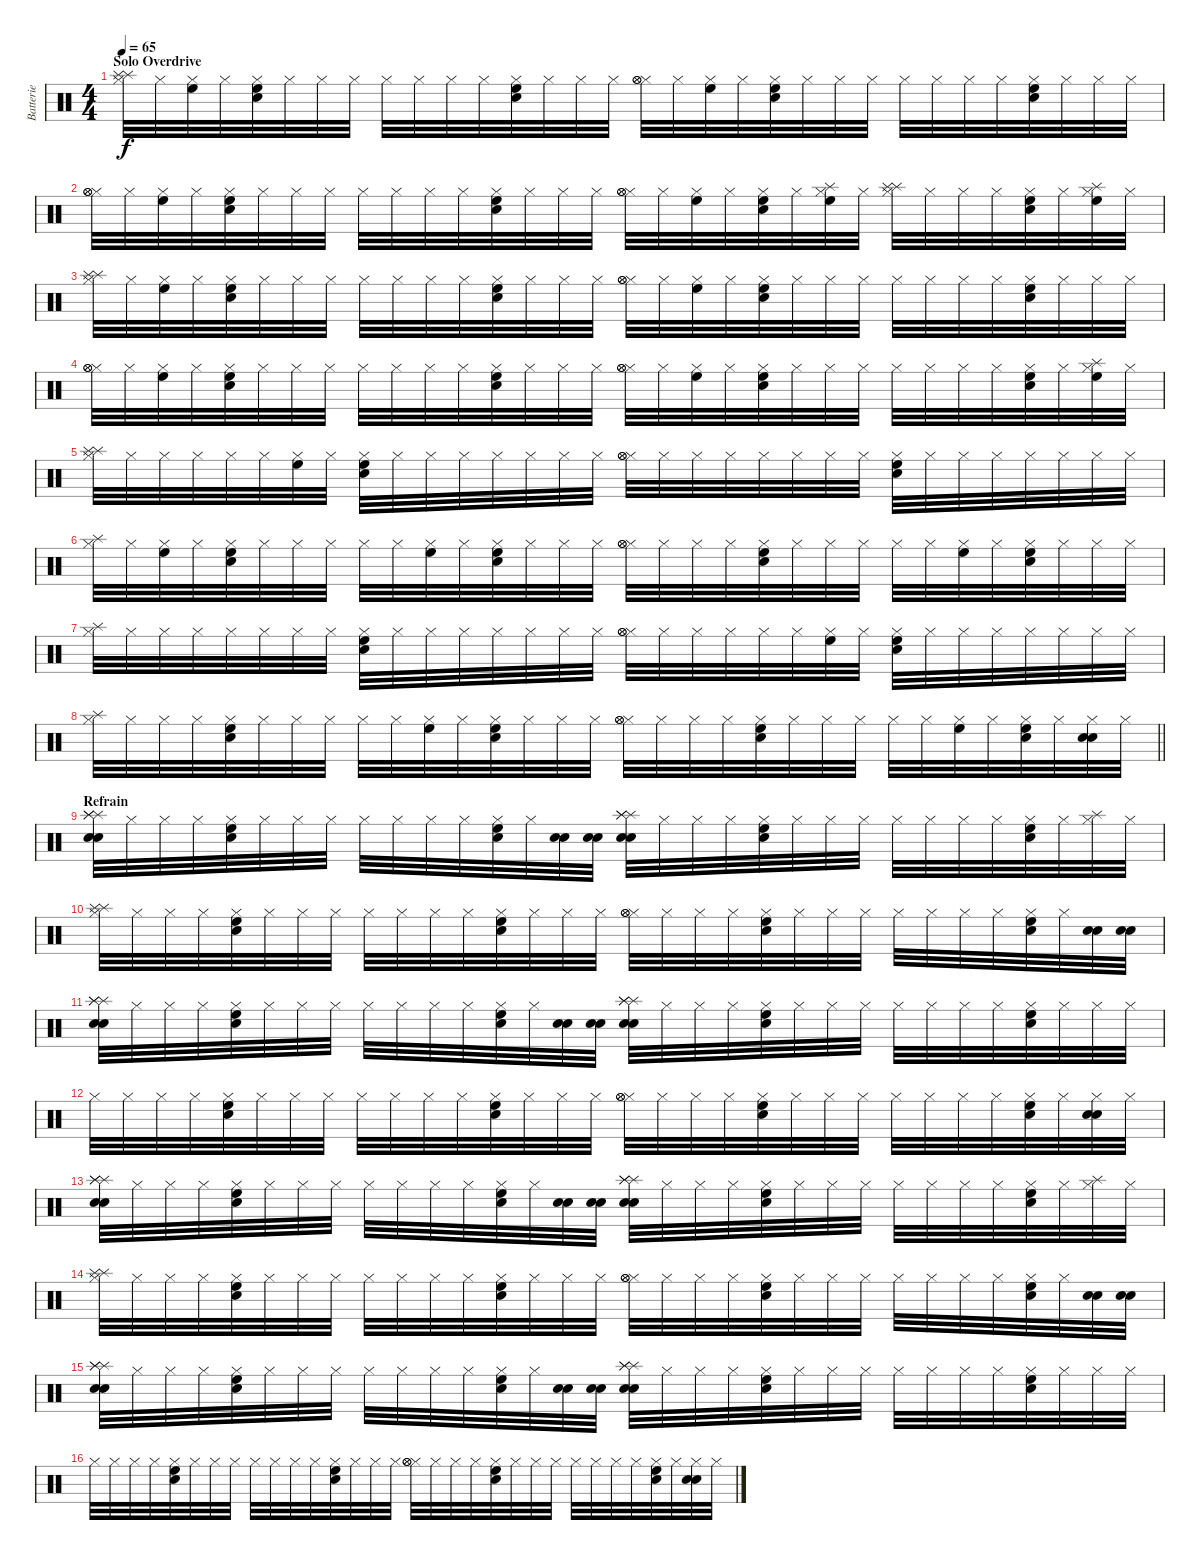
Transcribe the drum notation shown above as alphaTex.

\track ("Batterie" "Batterie") {instrument percussion}
\staff {score}
\articulation defaults
\ts (4 4)
\section ("" "Solo Overdrive")
\tempo 65
\clef neutral
\ks c
("Hi-Hat (closed)" "Splash (hit)" "Splash (hit)").32{dy f} "Hi-Hat (closed)".32 ("Hi-Hat (closed)" "High Floor Tom (hit)").32 "Hi-Hat (closed)".32 ("Hi-Hat (closed)" "Snare (hit) 2" "High Floor Tom (hit)").32 "Hi-Hat (closed)".32 "Hi-Hat (closed)".32 "Hi-Hat (closed)".32 "Hi-Hat (closed)".32 "Hi-Hat (closed)".32 "Hi-Hat (closed)".32 "Hi-Hat (closed)".32 ("Hi-Hat (closed)" "Snare (hit) 2" "High Floor Tom (hit)").32 "Hi-Hat (closed)".32 "Hi-Hat (closed)".32 "Hi-Hat (closed)".32 ("Hi-Hat (closed)" "Hi-Hat (open)" "Hi-Hat (open)").32 "Hi-Hat (closed)".32 ("Hi-Hat (closed)" "High Floor Tom (hit)").32 "Hi-Hat (closed)".32 ("Hi-Hat (closed)" "Snare (hit) 2" "High Floor Tom (hit)").32 "Hi-Hat (closed)".32 "Hi-Hat (closed)".32 "Hi-Hat (closed)".32 "Hi-Hat (closed)".32 "Hi-Hat (closed)".32 "Hi-Hat (closed)".32 "Hi-Hat (closed)".32 ("Hi-Hat (closed)" "Snare (hit) 2" "High Floor Tom (hit)").32 "Hi-Hat (closed)".32 "Hi-Hat (closed)".32 "Hi-Hat (closed)".32 |
("Hi-Hat (closed)" "Hi-Hat (open)" "Hi-Hat (open)").32 "Hi-Hat (closed)".32 ("Hi-Hat (closed)" "High Floor Tom (hit)").32 "Hi-Hat (closed)".32 ("Hi-Hat (closed)" "Snare (hit) 2" "High Floor Tom (hit)").32 "Hi-Hat (closed)".32 "Hi-Hat (closed)".32 "Hi-Hat (closed)".32 "Hi-Hat (closed)".32 "Hi-Hat (closed)".32 "Hi-Hat (closed)".32 "Hi-Hat (closed)".32 ("Hi-Hat (closed)" "Snare (hit) 2" "High Floor Tom (hit)").32 "Hi-Hat (closed)".32 "Hi-Hat (closed)".32 "Hi-Hat (closed)".32 ("Hi-Hat (closed)" "Hi-Hat (open)" "Hi-Hat (open)").32 "Hi-Hat (closed)".32 ("Hi-Hat (closed)" "High Floor Tom (hit)").32 "Hi-Hat (closed)".32 ("Hi-Hat (closed)" "Snare (hit) 2" "High Floor Tom (hit)").32 "Hi-Hat (closed)".32 ("Hi-Hat (closed)" "Splash (hit)" "High Floor Tom (hit)").32 "Hi-Hat (closed)".32 ("Hi-Hat (closed)" "Splash (hit)" "Splash (hit)").32 "Hi-Hat (closed)".32 "Hi-Hat (closed)".32 "Hi-Hat (closed)".32 ("Hi-Hat (closed)" "Snare (hit) 2" "High Floor Tom (hit)").32 "Hi-Hat (closed)".32 ("Hi-Hat (closed)" "Splash (hit)" "High Floor Tom (hit)").32 "Hi-Hat (closed)".32 |
("Hi-Hat (closed)" "Splash (hit)" "Splash (hit)").32 "Hi-Hat (closed)".32 ("Hi-Hat (closed)" "High Floor Tom (hit)").32 "Hi-Hat (closed)".32 ("Hi-Hat (closed)" "Snare (hit) 2" "High Floor Tom (hit)").32 "Hi-Hat (closed)".32 "Hi-Hat (closed)".32 "Hi-Hat (closed)".32 "Hi-Hat (closed)".32 "Hi-Hat (closed)".32 "Hi-Hat (closed)".32 "Hi-Hat (closed)".32 ("Hi-Hat (closed)" "Snare (hit) 2" "High Floor Tom (hit)").32 "Hi-Hat (closed)".32 "Hi-Hat (closed)".32 "Hi-Hat (closed)".32 ("Hi-Hat (closed)" "Hi-Hat (open)" "Hi-Hat (open)").32 "Hi-Hat (closed)".32 ("Hi-Hat (closed)" "High Floor Tom (hit)").32 "Hi-Hat (closed)".32 ("Hi-Hat (closed)" "Snare (hit) 2" "High Floor Tom (hit)").32 "Hi-Hat (closed)".32 "Hi-Hat (closed)".32 "Hi-Hat (closed)".32 "Hi-Hat (closed)".32 "Hi-Hat (closed)".32 "Hi-Hat (closed)".32 "Hi-Hat (closed)".32 ("Hi-Hat (closed)" "Snare (hit) 2" "High Floor Tom (hit)").32 "Hi-Hat (closed)".32 "Hi-Hat (closed)".32 "Hi-Hat (closed)".32 |
("Hi-Hat (closed)" "Hi-Hat (open)" "Hi-Hat (open)").32 "Hi-Hat (closed)".32 ("Hi-Hat (closed)" "High Floor Tom (hit)").32 "Hi-Hat (closed)".32 ("Hi-Hat (closed)" "Snare (hit) 2" "High Floor Tom (hit)").32 "Hi-Hat (closed)".32 "Hi-Hat (closed)".32 "Hi-Hat (closed)".32 "Hi-Hat (closed)".32 "Hi-Hat (closed)".32 "Hi-Hat (closed)".32 "Hi-Hat (closed)".32 ("Hi-Hat (closed)" "Snare (hit) 2" "High Floor Tom (hit)").32 "Hi-Hat (closed)".32 "Hi-Hat (closed)".32 "Hi-Hat (closed)".32 ("Hi-Hat (closed)" "Hi-Hat (open)" "Hi-Hat (open)").32 "Hi-Hat (closed)".32 ("Hi-Hat (closed)" "High Floor Tom (hit)").32 "Hi-Hat (closed)".32 ("Hi-Hat (closed)" "Snare (hit) 2" "High Floor Tom (hit)").32 "Hi-Hat (closed)".32 "Hi-Hat (closed)".32 "Hi-Hat (closed)".32 "Hi-Hat (closed)".32 "Hi-Hat (closed)".32 "Hi-Hat (closed)".32 "Hi-Hat (closed)".32 ("Hi-Hat (closed)" "Snare (hit) 2" "High Floor Tom (hit)").32 "Hi-Hat (closed)".32 ("Hi-Hat (closed)" "Splash (hit)" "High Floor Tom (hit)").32 "Hi-Hat (closed)".32 |
("Hi-Hat (closed)" "Splash (hit)" "Splash (hit)").32 "Hi-Hat (closed)".32 "Hi-Hat (closed)".32 "Hi-Hat (closed)".32 "Hi-Hat (closed)".32 "Hi-Hat (closed)".32 ("Hi-Hat (closed)" "High Floor Tom (hit)").32 "Hi-Hat (closed)".32 ("Hi-Hat (closed)" "Snare (hit) 2" "High Floor Tom (hit)").32 "Hi-Hat (closed)".32 "Hi-Hat (closed)".32 "Hi-Hat (closed)".32 "Hi-Hat (closed)".32 "Hi-Hat (closed)".32 "Hi-Hat (closed)".32 "Hi-Hat (closed)".32 ("Hi-Hat (closed)" "Hi-Hat (open)" "Hi-Hat (open)").32 "Hi-Hat (closed)".32 "Hi-Hat (closed)".32 "Hi-Hat (closed)".32 "Hi-Hat (closed)".32 "Hi-Hat (closed)".32 "Hi-Hat (closed)".32 "Hi-Hat (closed)".32 ("Hi-Hat (closed)" "Snare (hit) 2" "High Floor Tom (hit)").32 "Hi-Hat (closed)".32 "Hi-Hat (closed)".32 "Hi-Hat (closed)".32 "Hi-Hat (closed)".32 "Hi-Hat (closed)".32 "Hi-Hat (closed)".32 "Hi-Hat (closed)".32 |
("Hi-Hat (closed)" "Splash (hit)").32 "Hi-Hat (closed)".32 ("Hi-Hat (closed)" "High Floor Tom (hit)").32 "Hi-Hat (closed)".32 ("Hi-Hat (closed)" "Snare (hit) 2" "High Floor Tom (hit)").32 "Hi-Hat (closed)".32 "Hi-Hat (closed)".32 "Hi-Hat (closed)".32 "Hi-Hat (closed)".32 "Hi-Hat (closed)".32 ("Hi-Hat (closed)" "High Floor Tom (hit)").32 "Hi-Hat (closed)".32 ("Hi-Hat (closed)" "Snare (hit) 2" "High Floor Tom (hit)").32 "Hi-Hat (closed)".32 "Hi-Hat (closed)".32 "Hi-Hat (closed)".32 ("Hi-Hat (closed)" "Hi-Hat (open)" "Hi-Hat (open)").32 "Hi-Hat (closed)".32 "Hi-Hat (closed)".32 "Hi-Hat (closed)".32 ("Hi-Hat (closed)" "Snare (hit) 2" "High Floor Tom (hit)").32 "Hi-Hat (closed)".32 "Hi-Hat (closed)".32 "Hi-Hat (closed)".32 "Hi-Hat (closed)".32 "Hi-Hat (closed)".32 ("Hi-Hat (closed)" "High Floor Tom (hit)").32 "Hi-Hat (closed)".32 ("Hi-Hat (closed)" "Snare (hit) 2" "High Floor Tom (hit)").32 "Hi-Hat (closed)".32 "Hi-Hat (closed)".32 "Hi-Hat (closed)".32 |
("Hi-Hat (closed)" "Splash (hit)").32 "Hi-Hat (closed)".32 "Hi-Hat (closed)".32 "Hi-Hat (closed)".32 "Hi-Hat (closed)".32 "Hi-Hat (closed)".32 "Hi-Hat (closed)".32 "Hi-Hat (closed)".32 ("Hi-Hat (closed)" "Snare (hit) 2" "High Floor Tom (hit)").32 "Hi-Hat (closed)".32 "Hi-Hat (closed)".32 "Hi-Hat (closed)".32 "Hi-Hat (closed)".32 "Hi-Hat (closed)".32 "Hi-Hat (closed)".32 "Hi-Hat (closed)".32 ("Hi-Hat (closed)" "Hi-Hat (open)" "Hi-Hat (open)").32 "Hi-Hat (closed)".32 "Hi-Hat (closed)".32 "Hi-Hat (closed)".32 "Hi-Hat (closed)".32 "Hi-Hat (closed)".32 ("Hi-Hat (closed)" "High Floor Tom (hit)").32 "Hi-Hat (closed)".32 ("Hi-Hat (closed)" "Snare (hit) 2" "High Floor Tom (hit)").32 "Hi-Hat (closed)".32 "Hi-Hat (closed)".32 "Hi-Hat (closed)".32 "Hi-Hat (closed)".32 "Hi-Hat (closed)".32 "Hi-Hat (closed)".32 "Hi-Hat (closed)".32 |
\barLineRight lightlight
("Hi-Hat (closed)" "Splash (hit)").32 "Hi-Hat (closed)".32 "Hi-Hat (closed)".32 "Hi-Hat (closed)".32 ("Hi-Hat (closed)" "Snare (hit) 2" "High Floor Tom (hit)").32 "Hi-Hat (closed)".32 "Hi-Hat (closed)".32 "Hi-Hat (closed)".32 "Hi-Hat (closed)".32 "Hi-Hat (closed)".32 ("Hi-Hat (closed)" "High Floor Tom (hit)").32 "Hi-Hat (closed)".32 ("Hi-Hat (closed)" "Snare (hit) 2" "High Floor Tom (hit)").32 "Hi-Hat (closed)".32 "Hi-Hat (closed)".32 "Hi-Hat (closed)".32 ("Hi-Hat (closed)" "Hi-Hat (open)" "Hi-Hat (open)").32 "Hi-Hat (closed)".32 "Hi-Hat (closed)".32 "Hi-Hat (closed)".32 ("Hi-Hat (closed)" "Snare (hit) 2" "High Floor Tom (hit)").32 "Hi-Hat (closed)".32 "Hi-Hat (closed)".32 "Hi-Hat (closed)".32 "Hi-Hat (closed)".32 "Hi-Hat (closed)".32 ("Hi-Hat (closed)" "High Floor Tom (hit)").32 "Hi-Hat (closed)".32 ("Hi-Hat (closed)" "Snare (hit) 2" "High Floor Tom (hit)").32 "Hi-Hat (closed)".32 ("Hi-Hat (closed)" "Snare (hit) 2" "Snare (hit) 2").32 "Hi-Hat (closed)".32 |
\section ("" "Refrain")
("Snare (hit) 2" "Snare (hit) 2" "Splash (hit)" "Splash (hit)" "Splash (hit)").32 "Hi-Hat (closed)".32 "Hi-Hat (closed)".32 "Hi-Hat (closed)".32 ("Hi-Hat (closed)" "Snare (hit) 2" "High Floor Tom (hit)").32 "Hi-Hat (closed)".32 "Hi-Hat (closed)".32 "Hi-Hat (closed)".32 "Hi-Hat (closed)".32 "Hi-Hat (closed)".32 "Hi-Hat (closed)".32 "Hi-Hat (closed)".32 ("Hi-Hat (closed)" "Snare (hit) 2" "High Floor Tom (hit)").32 "Hi-Hat (closed)".32 ("Snare (hit) 2" "Snare (hit) 2").32 ("Snare (hit) 2" "Snare (hit) 2").32 ("Snare (hit) 2" "Snare (hit) 2" "Splash (hit)" "Splash (hit)" "Splash (hit)").32 "Hi-Hat (closed)".32 "Hi-Hat (closed)".32 "Hi-Hat (closed)".32 ("Hi-Hat (closed)" "Snare (hit) 2" "High Floor Tom (hit)").32 "Hi-Hat (closed)".32 "Hi-Hat (closed)".32 "Hi-Hat (closed)".32 "Hi-Hat (closed)".32 "Hi-Hat (closed)".32 "Hi-Hat (closed)".32 "Hi-Hat (closed)".32 ("Hi-Hat (closed)" "Snare (hit) 2" "High Floor Tom (hit)").32 "Hi-Hat (closed)".32 ("Hi-Hat (closed)" "Splash (hit)").32 "Hi-Hat (closed)".32 |
("Hi-Hat (closed)" "Splash (hit)" "Splash (hit)").32 "Hi-Hat (closed)".32 "Hi-Hat (closed)".32 "Hi-Hat (closed)".32 ("Hi-Hat (closed)" "Snare (hit) 2" "High Floor Tom (hit)").32 "Hi-Hat (closed)".32 "Hi-Hat (closed)".32 "Hi-Hat (closed)".32 "Hi-Hat (closed)".32 "Hi-Hat (closed)".32 "Hi-Hat (closed)".32 "Hi-Hat (closed)".32 ("Hi-Hat (closed)" "Snare (hit) 2" "High Floor Tom (hit)").32 "Hi-Hat (closed)".32 "Hi-Hat (closed)".32 "Hi-Hat (closed)".32 ("Hi-Hat (closed)" "Hi-Hat (open)" "Hi-Hat (open)").32 "Hi-Hat (closed)".32 "Hi-Hat (closed)".32 "Hi-Hat (closed)".32 ("Hi-Hat (closed)" "Snare (hit) 2" "High Floor Tom (hit)").32 "Hi-Hat (closed)".32 "Hi-Hat (closed)".32 "Hi-Hat (closed)".32 "Hi-Hat (closed)".32 "Hi-Hat (closed)".32 "Hi-Hat (closed)".32 "Hi-Hat (closed)".32 ("Hi-Hat (closed)" "Snare (hit) 2" "High Floor Tom (hit)").32 "Hi-Hat (closed)".32 ("Snare (hit) 2" "Snare (hit) 2").32 ("Snare (hit) 2" "Snare (hit) 2").32 |
("Snare (hit) 2" "Snare (hit) 2" "Splash (hit)" "Splash (hit)" "Splash (hit)").32 "Hi-Hat (closed)".32 "Hi-Hat (closed)".32 "Hi-Hat (closed)".32 ("Hi-Hat (closed)" "Snare (hit) 2" "High Floor Tom (hit)").32 "Hi-Hat (closed)".32 "Hi-Hat (closed)".32 "Hi-Hat (closed)".32 "Hi-Hat (closed)".32 "Hi-Hat (closed)".32 "Hi-Hat (closed)".32 "Hi-Hat (closed)".32 ("Hi-Hat (closed)" "Snare (hit) 2" "High Floor Tom (hit)").32 "Hi-Hat (closed)".32 ("Snare (hit) 2" "Snare (hit) 2").32 ("Snare (hit) 2" "Snare (hit) 2").32 ("Snare (hit) 2" "Snare (hit) 2" "Splash (hit)" "Splash (hit)" "Splash (hit)").32 "Hi-Hat (closed)".32 "Hi-Hat (closed)".32 "Hi-Hat (closed)".32 ("Hi-Hat (closed)" "Snare (hit) 2" "High Floor Tom (hit)").32 "Hi-Hat (closed)".32 "Hi-Hat (closed)".32 "Hi-Hat (closed)".32 "Hi-Hat (closed)".32 "Hi-Hat (closed)".32 "Hi-Hat (closed)".32 "Hi-Hat (closed)".32 ("Hi-Hat (closed)" "Snare (hit) 2" "High Floor Tom (hit)").32 "Hi-Hat (closed)".32 "Hi-Hat (closed)".32 "Hi-Hat (closed)".32 |
"Hi-Hat (closed)".32 "Hi-Hat (closed)".32 "Hi-Hat (closed)".32 "Hi-Hat (closed)".32 ("Hi-Hat (closed)" "Snare (hit) 2" "High Floor Tom (hit)").32 "Hi-Hat (closed)".32 "Hi-Hat (closed)".32 "Hi-Hat (closed)".32 "Hi-Hat (closed)".32 "Hi-Hat (closed)".32 "Hi-Hat (closed)".32 "Hi-Hat (closed)".32 ("Hi-Hat (closed)" "Snare (hit) 2" "High Floor Tom (hit)").32 "Hi-Hat (closed)".32 "Hi-Hat (closed)".32 "Hi-Hat (closed)".32 ("Hi-Hat (closed)" "Hi-Hat (open)" "Hi-Hat (open)").32 "Hi-Hat (closed)".32 "Hi-Hat (closed)".32 "Hi-Hat (closed)".32 ("Hi-Hat (closed)" "Snare (hit) 2" "High Floor Tom (hit)").32 "Hi-Hat (closed)".32 "Hi-Hat (closed)".32 "Hi-Hat (closed)".32 "Hi-Hat (closed)".32 "Hi-Hat (closed)".32 "Hi-Hat (closed)".32 "Hi-Hat (closed)".32 ("Hi-Hat (closed)" "Snare (hit) 2" "High Floor Tom (hit)").32 "Hi-Hat (closed)".32 ("Hi-Hat (closed)" "Snare (hit) 2" "Snare (hit) 2").32 "Hi-Hat (closed)".32 |
("Snare (hit) 2" "Snare (hit) 2" "Splash (hit)" "Splash (hit)" "Splash (hit)").32 "Hi-Hat (closed)".32 "Hi-Hat (closed)".32 "Hi-Hat (closed)".32 ("Hi-Hat (closed)" "Snare (hit) 2" "High Floor Tom (hit)").32 "Hi-Hat (closed)".32 "Hi-Hat (closed)".32 "Hi-Hat (closed)".32 "Hi-Hat (closed)".32 "Hi-Hat (closed)".32 "Hi-Hat (closed)".32 "Hi-Hat (closed)".32 ("Hi-Hat (closed)" "Snare (hit) 2" "High Floor Tom (hit)").32 "Hi-Hat (closed)".32 ("Snare (hit) 2" "Snare (hit) 2").32 ("Snare (hit) 2" "Snare (hit) 2").32 ("Snare (hit) 2" "Snare (hit) 2" "Splash (hit)" "Splash (hit)" "Splash (hit)").32 "Hi-Hat (closed)".32 "Hi-Hat (closed)".32 "Hi-Hat (closed)".32 ("Hi-Hat (closed)" "Snare (hit) 2" "High Floor Tom (hit)").32 "Hi-Hat (closed)".32 "Hi-Hat (closed)".32 "Hi-Hat (closed)".32 "Hi-Hat (closed)".32 "Hi-Hat (closed)".32 "Hi-Hat (closed)".32 "Hi-Hat (closed)".32 ("Hi-Hat (closed)" "Snare (hit) 2" "High Floor Tom (hit)").32 "Hi-Hat (closed)".32 ("Hi-Hat (closed)" "Splash (hit)").32 "Hi-Hat (closed)".32 |
("Hi-Hat (closed)" "Splash (hit)" "Splash (hit)").32 "Hi-Hat (closed)".32 "Hi-Hat (closed)".32 "Hi-Hat (closed)".32 ("Hi-Hat (closed)" "Snare (hit) 2" "High Floor Tom (hit)").32 "Hi-Hat (closed)".32 "Hi-Hat (closed)".32 "Hi-Hat (closed)".32 "Hi-Hat (closed)".32 "Hi-Hat (closed)".32 "Hi-Hat (closed)".32 "Hi-Hat (closed)".32 ("Hi-Hat (closed)" "Snare (hit) 2" "High Floor Tom (hit)").32 "Hi-Hat (closed)".32 "Hi-Hat (closed)".32 "Hi-Hat (closed)".32 ("Hi-Hat (closed)" "Hi-Hat (open)" "Hi-Hat (open)").32 "Hi-Hat (closed)".32 "Hi-Hat (closed)".32 "Hi-Hat (closed)".32 ("Hi-Hat (closed)" "Snare (hit) 2" "High Floor Tom (hit)").32 "Hi-Hat (closed)".32 "Hi-Hat (closed)".32 "Hi-Hat (closed)".32 "Hi-Hat (closed)".32 "Hi-Hat (closed)".32 "Hi-Hat (closed)".32 "Hi-Hat (closed)".32 ("Hi-Hat (closed)" "Snare (hit) 2" "High Floor Tom (hit)").32 "Hi-Hat (closed)".32 ("Snare (hit) 2" "Snare (hit) 2").32 ("Snare (hit) 2" "Snare (hit) 2").32 |
("Snare (hit) 2" "Snare (hit) 2" "Splash (hit)" "Splash (hit)" "Splash (hit)").32 "Hi-Hat (closed)".32 "Hi-Hat (closed)".32 "Hi-Hat (closed)".32 ("Hi-Hat (closed)" "Snare (hit) 2" "High Floor Tom (hit)").32 "Hi-Hat (closed)".32 "Hi-Hat (closed)".32 "Hi-Hat (closed)".32 "Hi-Hat (closed)".32 "Hi-Hat (closed)".32 "Hi-Hat (closed)".32 "Hi-Hat (closed)".32 ("Hi-Hat (closed)" "Snare (hit) 2" "High Floor Tom (hit)").32 "Hi-Hat (closed)".32 ("Snare (hit) 2" "Snare (hit) 2").32 ("Snare (hit) 2" "Snare (hit) 2").32 ("Snare (hit) 2" "Snare (hit) 2" "Splash (hit)" "Splash (hit)" "Splash (hit)").32 "Hi-Hat (closed)".32 "Hi-Hat (closed)".32 "Hi-Hat (closed)".32 ("Hi-Hat (closed)" "Snare (hit) 2" "High Floor Tom (hit)").32 "Hi-Hat (closed)".32 "Hi-Hat (closed)".32 "Hi-Hat (closed)".32 "Hi-Hat (closed)".32 "Hi-Hat (closed)".32 "Hi-Hat (closed)".32 "Hi-Hat (closed)".32 ("Hi-Hat (closed)" "Snare (hit) 2" "High Floor Tom (hit)").32 "Hi-Hat (closed)".32 "Hi-Hat (closed)".32 "Hi-Hat (closed)".32 |
"Hi-Hat (closed)".32 "Hi-Hat (closed)".32 "Hi-Hat (closed)".32 "Hi-Hat (closed)".32 ("Hi-Hat (closed)" "Snare (hit) 2" "High Floor Tom (hit)").32 "Hi-Hat (closed)".32 "Hi-Hat (closed)".32 "Hi-Hat (closed)".32 "Hi-Hat (closed)".32 "Hi-Hat (closed)".32 "Hi-Hat (closed)".32 "Hi-Hat (closed)".32 ("Hi-Hat (closed)" "Snare (hit) 2" "High Floor Tom (hit)").32 "Hi-Hat (closed)".32 "Hi-Hat (closed)".32 "Hi-Hat (closed)".32 ("Hi-Hat (closed)" "Hi-Hat (open)" "Hi-Hat (open)").32 "Hi-Hat (closed)".32 "Hi-Hat (closed)".32 "Hi-Hat (closed)".32 ("Hi-Hat (closed)" "Snare (hit) 2" "High Floor Tom (hit)").32 "Hi-Hat (closed)".32 "Hi-Hat (closed)".32 "Hi-Hat (closed)".32 "Hi-Hat (closed)".32 "Hi-Hat (closed)".32 "Hi-Hat (closed)".32 "Hi-Hat (closed)".32 ("Hi-Hat (closed)" "Snare (hit) 2" "High Floor Tom (hit)").32 "Hi-Hat (closed)".32 ("Hi-Hat (closed)" "Snare (hit) 2" "Snare (hit) 2").32 "Hi-Hat (closed)".32
